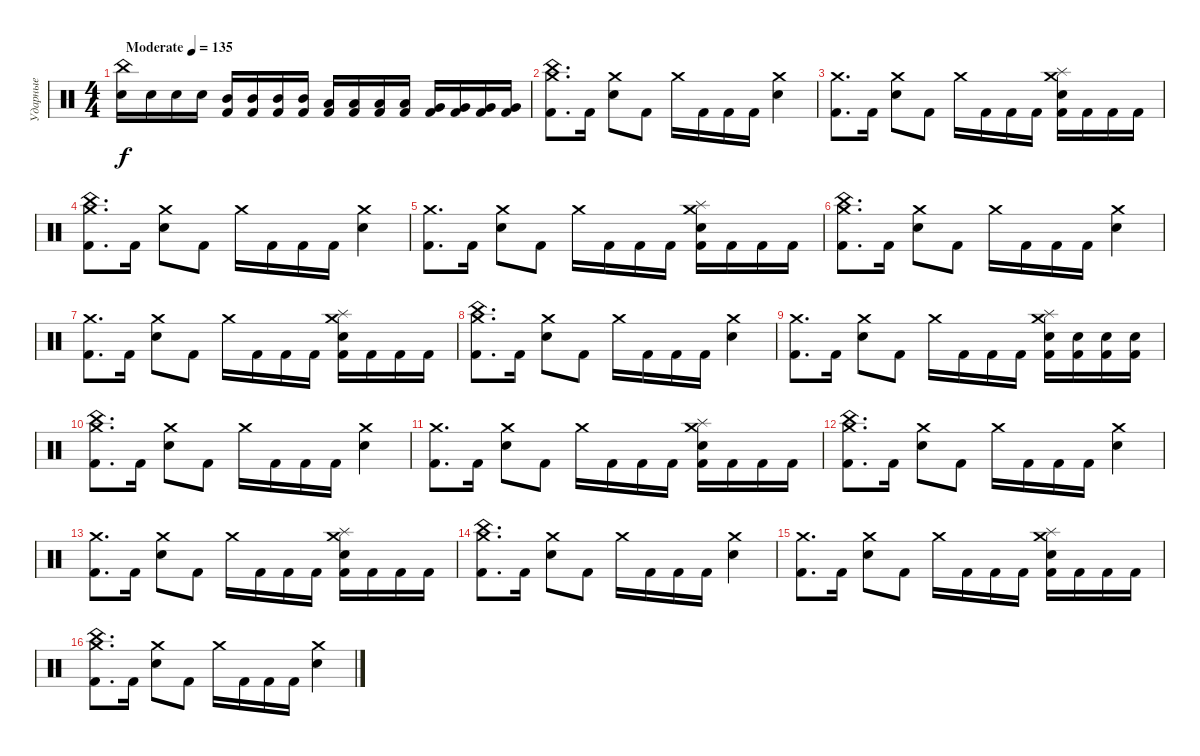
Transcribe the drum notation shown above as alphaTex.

\track ("Ударные" "Ударные") {instrument percussion}
\staff {score}
\articulation defaults
\ts (4 4)
\tempo (135 "Moderate")
\clef neutral
\ks c
("Snare (hit) 2" "China (hit)").16{dy f} "Snare (hit) 2".16 "Snare (hit) 2".16 "Snare (hit) 2".16 ("Kick (hit) 2" "Mid Tom (hit)").16 ("Kick (hit) 2" "Mid Tom (hit)").16 ("Kick (hit) 2" "Mid Tom (hit)").16 ("Kick (hit) 2" "Mid Tom (hit)").16 ("Kick (hit) 2" "Low Floor Tom (hit)").16 ("Kick (hit) 2" "Low Floor Tom (hit)").16 ("Kick (hit) 2" "Low Floor Tom (hit)").16 ("Kick (hit) 2" "Low Floor Tom (hit)").16 ("Kick (hit) 2" "Very Low Tom (hit)").16 ("Kick (hit) 2" "Very Low Tom (hit)").16 ("Kick (hit) 2" "Very Low Tom (hit)").16 ("Kick (hit) 2" "Very Low Tom (hit)").16 |
("Kick (hit) 2" "Crash medium (hit)" "China (hit)").8{d} "Kick (hit) 2".16 ("Snare (hit) 2" "Crash medium (hit)").8 "Kick (hit) 2".8 "Crash medium (hit)".16 "Kick (hit) 2".16 "Kick (hit) 2".16 "Kick (hit) 2".16 ("Snare (hit) 2" "Crash medium (hit)").4 |
("Kick (hit) 2" "Crash medium (hit)").8{d} "Kick (hit) 2".16 ("Snare (hit) 2" "Crash medium (hit)").8 "Kick (hit) 2".8 "Crash medium (hit)".16 "Kick (hit) 2".16 "Kick (hit) 2".16 "Kick (hit) 2".16 ("Snare (hit) 2" "Crash medium (hit)" "Kick (hit) 2" "Splash (hit)").16 "Kick (hit) 2".16 "Kick (hit) 2".16 "Kick (hit) 2".16 |
("Kick (hit) 2" "Crash medium (hit)" "China (hit)").8{d} "Kick (hit) 2".16 ("Snare (hit) 2" "Crash medium (hit)").8 "Kick (hit) 2".8 "Crash medium (hit)".16 "Kick (hit) 2".16 "Kick (hit) 2".16 "Kick (hit) 2".16 ("Snare (hit) 2" "Crash medium (hit)").4 |
("Kick (hit) 2" "Crash medium (hit)").8{d} "Kick (hit) 2".16 ("Snare (hit) 2" "Crash medium (hit)").8 "Kick (hit) 2".8 "Crash medium (hit)".16 "Kick (hit) 2".16 "Kick (hit) 2".16 "Kick (hit) 2".16 ("Snare (hit) 2" "Crash medium (hit)" "Kick (hit) 2" "Splash (hit)").16 "Kick (hit) 2".16 "Kick (hit) 2".16 "Kick (hit) 2".16 |
("Kick (hit) 2" "Crash medium (hit)" "China (hit)").8{d} "Kick (hit) 2".16 ("Snare (hit) 2" "Crash medium (hit)").8 "Kick (hit) 2".8 "Crash medium (hit)".16 "Kick (hit) 2".16 "Kick (hit) 2".16 "Kick (hit) 2".16 ("Snare (hit) 2" "Crash medium (hit)").4 |
("Kick (hit) 2" "Crash medium (hit)").8{d} "Kick (hit) 2".16 ("Snare (hit) 2" "Crash medium (hit)").8 "Kick (hit) 2".8 "Crash medium (hit)".16 "Kick (hit) 2".16 "Kick (hit) 2".16 "Kick (hit) 2".16 ("Snare (hit) 2" "Crash medium (hit)" "Kick (hit) 2" "Splash (hit)").16 "Kick (hit) 2".16 "Kick (hit) 2".16 "Kick (hit) 2".16 |
("Kick (hit) 2" "Crash medium (hit)" "China (hit)").8{d} "Kick (hit) 2".16 ("Snare (hit) 2" "Crash medium (hit)").8 "Kick (hit) 2".8 "Crash medium (hit)".16 "Kick (hit) 2".16 "Kick (hit) 2".16 "Kick (hit) 2".16 ("Snare (hit) 2" "Crash medium (hit)").4 |
("Kick (hit) 2" "Crash medium (hit)").8{d} "Kick (hit) 2".16 ("Snare (hit) 2" "Crash medium (hit)").8 "Kick (hit) 2".8 "Crash medium (hit)".16 "Kick (hit) 2".16 "Kick (hit) 2".16 "Kick (hit) 2".16 ("Snare (hit) 2" "Crash medium (hit)" "Kick (hit) 2" "Splash (hit)").16 ("Snare (hit) 2" "Kick (hit) 2").16 ("Kick (hit) 2" "Snare (hit) 2").16 ("Kick (hit) 2" "Snare (hit) 2").16 |
("Kick (hit) 2" "Crash medium (hit)" "China (hit)").8{d} "Kick (hit) 2".16 ("Snare (hit) 2" "Crash medium (hit)").8 "Kick (hit) 2".8 "Crash medium (hit)".16 "Kick (hit) 2".16 "Kick (hit) 2".16 "Kick (hit) 2".16 ("Snare (hit) 2" "Crash medium (hit)").4 |
("Kick (hit) 2" "Crash medium (hit)").8{d} "Kick (hit) 2".16 ("Snare (hit) 2" "Crash medium (hit)").8 "Kick (hit) 2".8 "Crash medium (hit)".16 "Kick (hit) 2".16 "Kick (hit) 2".16 "Kick (hit) 2".16 ("Snare (hit) 2" "Crash medium (hit)" "Kick (hit) 2" "Splash (hit)").16 "Kick (hit) 2".16 "Kick (hit) 2".16 "Kick (hit) 2".16 |
("Kick (hit) 2" "Crash medium (hit)" "China (hit)").8{d} "Kick (hit) 2".16 ("Snare (hit) 2" "Crash medium (hit)").8 "Kick (hit) 2".8 "Crash medium (hit)".16 "Kick (hit) 2".16 "Kick (hit) 2".16 "Kick (hit) 2".16 ("Snare (hit) 2" "Crash medium (hit)").4 |
("Kick (hit) 2" "Crash medium (hit)").8{d} "Kick (hit) 2".16 ("Snare (hit) 2" "Crash medium (hit)").8 "Kick (hit) 2".8 "Crash medium (hit)".16 "Kick (hit) 2".16 "Kick (hit) 2".16 "Kick (hit) 2".16 ("Snare (hit) 2" "Crash medium (hit)" "Kick (hit) 2" "Splash (hit)").16 "Kick (hit) 2".16 "Kick (hit) 2".16 "Kick (hit) 2".16 |
("Kick (hit) 2" "Crash medium (hit)" "China (hit)").8{d} "Kick (hit) 2".16 ("Snare (hit) 2" "Crash medium (hit)").8 "Kick (hit) 2".8 "Crash medium (hit)".16 "Kick (hit) 2".16 "Kick (hit) 2".16 "Kick (hit) 2".16 ("Snare (hit) 2" "Crash medium (hit)").4 |
("Kick (hit) 2" "Crash medium (hit)").8{d} "Kick (hit) 2".16 ("Snare (hit) 2" "Crash medium (hit)").8 "Kick (hit) 2".8 "Crash medium (hit)".16 "Kick (hit) 2".16 "Kick (hit) 2".16 "Kick (hit) 2".16 ("Snare (hit) 2" "Crash medium (hit)" "Kick (hit) 2" "Splash (hit)").16 "Kick (hit) 2".16 "Kick (hit) 2".16 "Kick (hit) 2".16 |
("Kick (hit) 2" "Crash medium (hit)" "China (hit)").8{d} "Kick (hit) 2".16 ("Snare (hit) 2" "Crash medium (hit)").8 "Kick (hit) 2".8 "Crash medium (hit)".16 "Kick (hit) 2".16 "Kick (hit) 2".16 "Kick (hit) 2".16 ("Snare (hit) 2" "Crash medium (hit)").4
